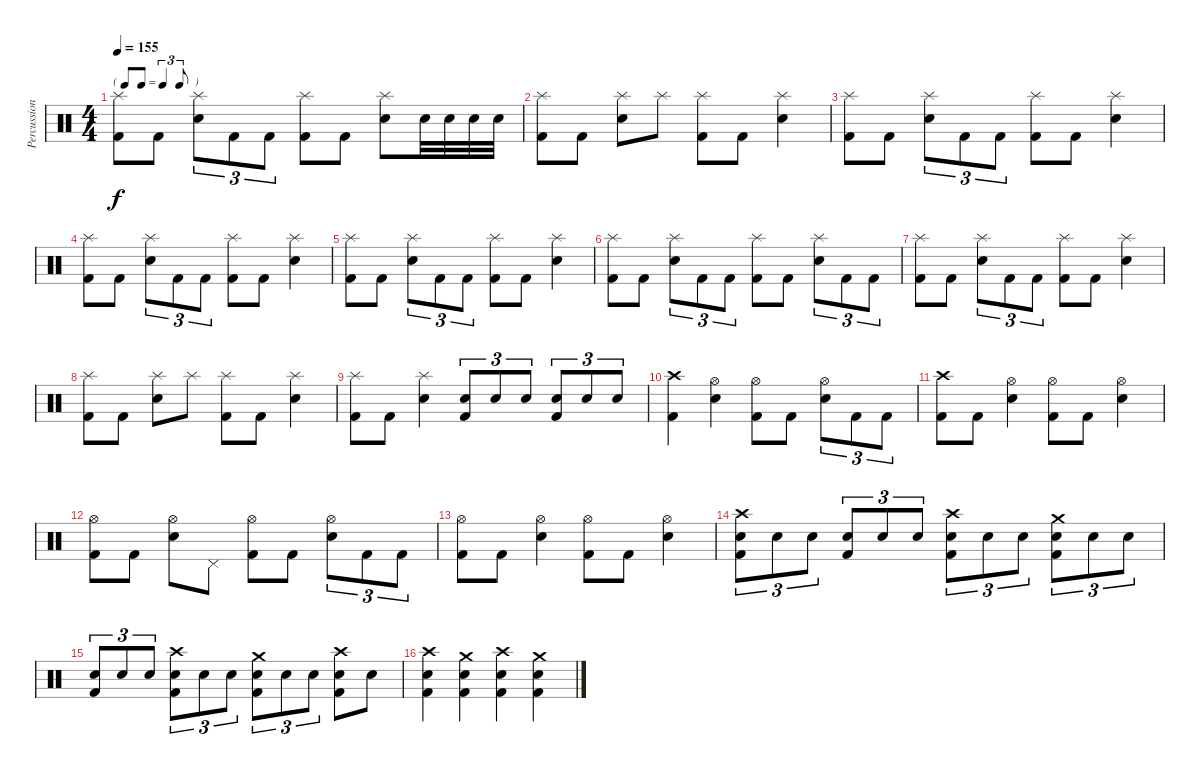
\track ("Percussion" "Percussion") {instrument percussion}
\staff {score}
\articulation defaults
\ts (4 4)
\tf triplet8th
\tempo 155
\clef neutral
\ks c
("Kick (hit) 2" "Splash (hit)").8{dy f} "Kick (hit) 2".8 ("Snare (hit) 2" "Splash (hit)").8{tu (3 2)} "Kick (hit) 2".8{tu (3 2)} "Kick (hit) 2".8{tu (3 2)} ("Kick (hit) 2" "Splash (hit)").8 "Kick (hit) 2".8 ("Snare (hit) 2" "Splash (hit)").8 "Snare (hit) 2".32 "Snare (hit) 2".32 "Snare (hit) 2".32 "Snare (hit) 2".32 |
("Kick (hit) 2" "Splash (hit)").8 "Kick (hit) 2".8 ("Snare (hit) 2" "Splash (hit)").8 "Splash (hit)".8 ("Kick (hit) 2" "Splash (hit)").8 "Kick (hit) 2".8 ("Snare (hit) 2" "Splash (hit)").4 |
("Kick (hit) 2" "Splash (hit)").8 "Kick (hit) 2".8 ("Snare (hit) 2" "Splash (hit)").8{tu (3 2)} "Kick (hit) 2".8{tu (3 2)} "Kick (hit) 2".8{tu (3 2)} ("Kick (hit) 2" "Splash (hit)").8 "Kick (hit) 2".8 ("Snare (hit) 2" "Splash (hit)").4 |
("Kick (hit) 2" "Splash (hit)").8 "Kick (hit) 2".8 ("Snare (hit) 2" "Splash (hit)").8{tu (3 2)} "Kick (hit) 2".8{tu (3 2)} "Kick (hit) 2".8{tu (3 2)} ("Kick (hit) 2" "Splash (hit)").8 "Kick (hit) 2".8 ("Snare (hit) 2" "Splash (hit)").4 |
("Kick (hit) 2" "Splash (hit)").8 "Kick (hit) 2".8 ("Snare (hit) 2" "Splash (hit)").8{tu (3 2)} "Kick (hit) 2".8{tu (3 2)} "Kick (hit) 2".8{tu (3 2)} ("Kick (hit) 2" "Splash (hit)").8 "Kick (hit) 2".8 ("Snare (hit) 2" "Splash (hit)").4 |
("Kick (hit) 2" "Splash (hit)").8 "Kick (hit) 2".8 ("Snare (hit) 2" "Splash (hit)").8{tu (3 2)} "Kick (hit) 2".8{tu (3 2)} "Kick (hit) 2".8{tu (3 2)} ("Kick (hit) 2" "Splash (hit)").8 "Kick (hit) 2".8 ("Snare (hit) 2" "Splash (hit)").8{tu (3 2)} "Kick (hit) 2".8{tu (3 2)} "Kick (hit) 2".8{tu (3 2)} |
("Kick (hit) 2" "Splash (hit)").8 "Kick (hit) 2".8 ("Snare (hit) 2" "Splash (hit)").8{tu (3 2)} "Kick (hit) 2".8{tu (3 2)} "Kick (hit) 2".8{tu (3 2)} ("Kick (hit) 2" "Splash (hit)").8 "Kick (hit) 2".8 ("Snare (hit) 2" "Splash (hit)").4 |
("Kick (hit) 2" "Splash (hit)").8 "Kick (hit) 2".8 ("Snare (hit) 2" "Splash (hit)").8 "Splash (hit)".8 ("Kick (hit) 2" "Splash (hit)").8 "Kick (hit) 2".8 ("Snare (hit) 2" "Splash (hit)").4 |
("Kick (hit) 2" "Splash (hit)").8 "Kick (hit) 2".8 ("Snare (hit) 2" "Splash (hit)").4 ("Snare (hit) 2" "Kick (hit) 2").8{tu (3 2)} "Snare (hit) 2".8{tu (3 2)} "Snare (hit) 2".8{tu (3 2)} ("Snare (hit) 2" "Kick (hit) 2").8{tu (3 2)} "Snare (hit) 2".8{tu (3 2)} "Snare (hit) 2".8{tu (3 2)} |
("Kick (hit) 2" "Crash high (hit)").4 ("Snare (hit) 2" "Hi-Hat (open)").4 ("Kick (hit) 2" "Hi-Hat (open)").8 "Kick (hit) 2".8 ("Snare (hit) 2" "Hi-Hat (open)").8{tu (3 2)} "Kick (hit) 2".8{tu (3 2)} "Kick (hit) 2".8{tu (3 2)} |
("Kick (hit) 2" "Crash high (hit)").8 "Kick (hit) 2".8 ("Snare (hit) 2" "Hi-Hat (open)").4 ("Kick (hit) 2" "Hi-Hat (open)").8 "Kick (hit) 2".8 ("Snare (hit) 2" "Hi-Hat (open)").4 |
("Kick (hit) 2" "Hi-Hat (open)").8 "Kick (hit) 2".8 ("Snare (hit) 2" "Hi-Hat (open)").8 "Pedal Hi-Hat (hit)".8 ("Kick (hit) 2" "Hi-Hat (open)").8 "Kick (hit) 2".8 ("Snare (hit) 2" "Hi-Hat (open)").8{tu (3 2)} "Kick (hit) 2".8{tu (3 2)} "Kick (hit) 2".8{tu (3 2)} |
("Kick (hit) 2" "Hi-Hat (open)").8 "Kick (hit) 2".8 ("Snare (hit) 2" "Hi-Hat (open)").4 ("Kick (hit) 2" "Hi-Hat (open)").8 "Kick (hit) 2".8 ("Snare (hit) 2" "Hi-Hat (open)").4 |
("Snare (hit) 2" "Kick (hit) 2" "Crash high (hit)").8{tu (3 2)} "Snare (hit) 2".8{tu (3 2)} "Snare (hit) 2".8{tu (3 2)} ("Snare (hit) 2" "Kick (hit) 2").8{tu (3 2)} "Snare (hit) 2".8{tu (3 2)} "Snare (hit) 2".8{tu (3 2)} ("Snare (hit) 2" "Kick (hit) 2" "Crash high (hit)").8{tu (3 2)} "Snare (hit) 2".8{tu (3 2)} "Snare (hit) 2".8{tu (3 2)} ("Snare (hit) 2" "Kick (hit) 2" "Crash medium (hit)").8{tu (3 2)} "Snare (hit) 2".8{tu (3 2)} "Snare (hit) 2".8{tu (3 2)} |
("Snare (hit) 2" "Kick (hit) 2").8{tu (3 2)} "Snare (hit) 2".8{tu (3 2)} "Snare (hit) 2".8{tu (3 2)} ("Snare (hit) 2" "Kick (hit) 2" "Crash high (hit)").8{tu (3 2)} "Snare (hit) 2".8{tu (3 2)} "Snare (hit) 2".8{tu (3 2)} ("Snare (hit) 2" "Kick (hit) 2" "Crash medium (hit)").8{tu (3 2)} "Snare (hit) 2".8{tu (3 2)} "Snare (hit) 2".8{tu (3 2)} ("Snare (hit) 2" "Kick (hit) 2" "Crash high (hit)").8 "Snare (hit) 2".8 |
("Kick (hit) 2" "Snare (hit) 2" "Crash high (hit)").4 ("Kick (hit) 2" "Snare (hit) 2" "Crash medium (hit)").4 ("Kick (hit) 2" "Snare (hit) 2" "Crash high (hit)").4 ("Kick (hit) 2" "Snare (hit) 2" "Crash medium (hit)").4
